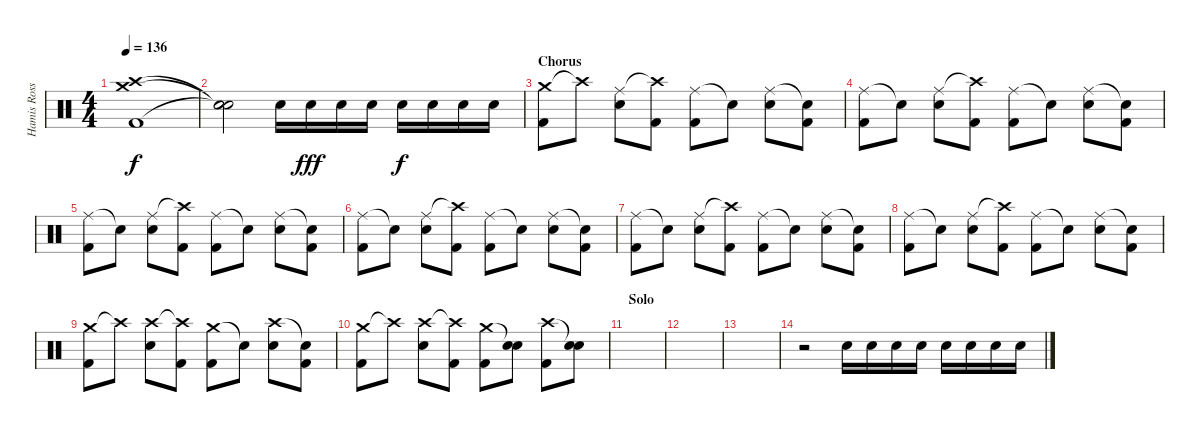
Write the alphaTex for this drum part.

\track ("Hamis Rosser" "Hamis Ross") {instrument percussion}
\staff {score}
\articulation defaults
\ts (4 4)
\tempo 136
\clef neutral
\ks c
("Crash high (hit)" "Crash medium (hit)" "Kick (hit) 2").1{dy f} |
("Snare (hit)"{t} "Snare (hit)"{t} "Snare (hit)"{t}).2 "Electric Snare (hit)".16 "Electric Snare (hit)".16{dy fff} "Electric Snare (hit)".16 "Electric Snare (hit)".16 "Electric Snare (hit)".16{dy f} "Electric Snare (hit)".16 "Electric Snare (hit)".16 "Electric Snare (hit)".16 |
\section ("" "Chorus")
("Crash medium (hit)" "Kick (hit) 2").8 "Crash high (hit)"{t}.8 ("Ride (middle)" "Electric Snare (hit)").8 ("Crash high (hit)"{t} "Kick (hit) 2").8 ("Ride (middle)" "Kick (hit) 2").8 "Snare (hit)"{t}.8 ("Ride (middle)" "Electric Snare (hit)").8 ("Snare (hit)"{t} "Kick (hit) 2").8 |
("Ride (middle)" "Kick (hit) 2").8 "Snare (hit)"{t}.8 ("Ride (middle)" "Electric Snare (hit)").8 ("Crash high (hit)"{t} "Kick (hit) 2").8 ("Ride (middle)" "Kick (hit) 2").8 "Snare (hit)"{t}.8 ("Ride (middle)" "Electric Snare (hit)").8 ("Snare (hit)"{t} "Kick (hit) 2").8 |
("Ride (middle)" "Kick (hit) 2").8 "Snare (hit)"{t}.8 ("Ride (middle)" "Electric Snare (hit)").8 ("Crash high (hit)"{t} "Kick (hit) 2").8 ("Ride (middle)" "Kick (hit) 2").8 "Snare (hit)"{t}.8 ("Ride (middle)" "Electric Snare (hit)").8 ("Snare (hit)"{t} "Kick (hit) 2").8 |
("Ride (middle)" "Kick (hit) 2").8 "Snare (hit)"{t}.8 ("Ride (middle)" "Electric Snare (hit)").8 ("Crash high (hit)"{t} "Kick (hit) 2").8 ("Ride (middle)" "Kick (hit) 2").8 "Snare (hit)"{t}.8 ("Ride (middle)" "Electric Snare (hit)").8 ("Snare (hit)"{t} "Kick (hit) 2").8 |
("Ride (middle)" "Kick (hit) 2").8 "Snare (hit)"{t}.8 ("Ride (middle)" "Electric Snare (hit)").8 ("Crash high (hit)"{t} "Kick (hit) 2").8 ("Ride (middle)" "Kick (hit) 2").8 "Snare (hit)"{t}.8 ("Ride (middle)" "Electric Snare (hit)").8 ("Snare (hit)"{t} "Kick (hit) 2").8 |
("Ride (middle)" "Kick (hit) 2").8 "Snare (hit)"{t}.8 ("Ride (middle)" "Electric Snare (hit)").8 ("Crash high (hit)"{t} "Kick (hit) 2").8 ("Ride (middle)" "Kick (hit) 2").8 "Snare (hit)"{t}.8 ("Ride (middle)" "Electric Snare (hit)").8 ("Snare (hit)"{t} "Kick (hit) 2").8 |
("Crash medium (hit)" "Kick (hit) 2").8 "Crash high (hit)"{t}.8 ("Crash high (hit)" "Electric Snare (hit)").8 ("Crash high (hit)"{t} "Kick (hit) 2").8 ("Crash medium (hit)" "Kick (hit) 2").8 "Snare (hit)"{t}.8 ("Crash high (hit)" "Electric Snare (hit)").8 ("Snare (hit)"{t} "Kick (hit) 2").8 |
("Crash medium (hit)" "Kick (hit) 2").8 "Crash high (hit)"{t}.8 ("Crash high (hit)" "Electric Snare (hit)").8 ("Crash high (hit)"{t} "Kick (hit) 2").8 ("Crash medium (hit)" "Kick (hit) 2").8 ("Snare (hit)"{t} "Electric Snare (hit)").8 ("Crash high (hit)" "Kick (hit) 2").8 ("Snare (hit)"{t} "Electric Snare (hit)").8 |
\section ("" "Solo")
|
|
|
r.2 "Electric Snare (hit)".16 "Electric Snare (hit)".16 "Electric Snare (hit)".16 "Electric Snare (hit)".16 "Electric Snare (hit)".16 "Electric Snare (hit)".16 "Electric Snare (hit)".16 "Electric Snare (hit)".16
